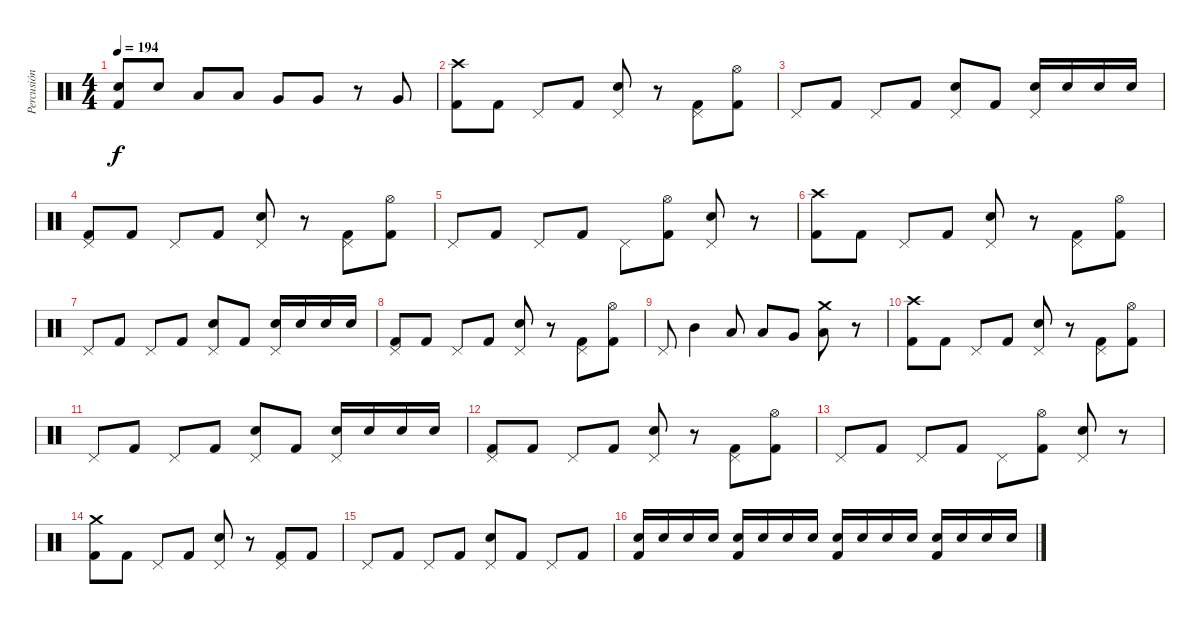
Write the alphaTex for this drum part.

\track ("Percusión" "Percusión") {instrument percussion}
\staff {score}
\articulation defaults
\ts (4 4)
\tempo 194
\clef neutral
\ks c
("Kick (hit) 2" "Snare (hit) 2").8{dy f} "Snare (hit) 2".8 "Low Tom (hit)".8 "Low Tom (hit)".8 "Very Low Tom (hit)".8 "Very Low Tom (hit)".8 r.8 "Very Low Tom (hit)".8 |
("Kick (hit) 2" "Crash high (hit)").8 "Kick (hit) 2".8 "Pedal Hi-Hat (hit)".8 "Kick (hit) 2".8 ("Snare (hit) 2" "Pedal Hi-Hat (hit)").8 r.8 ("Kick (hit) 2" "Pedal Hi-Hat (hit)").8 ("Kick (hit) 2" "Hi-Hat (open)").8 |
"Pedal Hi-Hat (hit)".8 "Kick (hit) 2".8 "Pedal Hi-Hat (hit)".8 "Kick (hit) 2".8 ("Snare (hit) 2" "Pedal Hi-Hat (hit)").8 "Kick (hit) 2".8 ("Snare (hit) 2" "Pedal Hi-Hat (hit)").16 "Snare (hit) 2".16 "Snare (hit) 2".16 "Snare (hit) 2".16 |
("Kick (hit) 2" "Pedal Hi-Hat (hit)").8 "Kick (hit) 2".8 "Pedal Hi-Hat (hit)".8 "Kick (hit) 2".8 ("Snare (hit) 2" "Pedal Hi-Hat (hit)").8 r.8 ("Kick (hit) 2" "Pedal Hi-Hat (hit)").8 ("Kick (hit) 2" "Hi-Hat (open)").8 |
"Pedal Hi-Hat (hit)".8 "Kick (hit) 2".8 "Pedal Hi-Hat (hit)".8 "Kick (hit) 2".8 "Pedal Hi-Hat (hit)".8 ("Kick (hit) 2" "Hi-Hat (open)").8 ("Snare (hit) 2" "Pedal Hi-Hat (hit)").8 r.8 |
("Kick (hit) 2" "Crash high (hit)").8 "Kick (hit) 2".8 "Pedal Hi-Hat (hit)".8 "Kick (hit) 2".8 ("Snare (hit) 2" "Pedal Hi-Hat (hit)").8 r.8 ("Kick (hit) 2" "Pedal Hi-Hat (hit)").8 ("Kick (hit) 2" "Hi-Hat (open)").8 |
"Pedal Hi-Hat (hit)".8 "Kick (hit) 2".8 "Pedal Hi-Hat (hit)".8 "Kick (hit) 2".8 ("Snare (hit) 2" "Pedal Hi-Hat (hit)").8 "Kick (hit) 2".8 ("Snare (hit) 2" "Pedal Hi-Hat (hit)").16 "Snare (hit) 2".16 "Snare (hit) 2".16 "Snare (hit) 2".16 |
("Kick (hit) 2" "Pedal Hi-Hat (hit)").8 "Kick (hit) 2".8 "Pedal Hi-Hat (hit)".8 "Kick (hit) 2".8 ("Snare (hit) 2" "Pedal Hi-Hat (hit)").8 r.8 ("Kick (hit) 2" "Pedal Hi-Hat (hit)").8 ("Kick (hit) 2" "Hi-Hat (open)").8 |
"Pedal Hi-Hat (hit)".8 "Mid Tom (hit)".4 "Low Tom (hit)".8 "Low Tom (hit)".8 "Very Low Tom (hit)".8 ("Low Floor Tom (hit)" "Crash medium (hit)").8 r.8 |
("Kick (hit) 2" "Crash high (hit)").8 "Kick (hit) 2".8 "Pedal Hi-Hat (hit)".8 "Kick (hit) 2".8 ("Snare (hit) 2" "Pedal Hi-Hat (hit)").8 r.8 ("Kick (hit) 2" "Pedal Hi-Hat (hit)").8 ("Kick (hit) 2" "Hi-Hat (open)").8 |
"Pedal Hi-Hat (hit)".8 "Kick (hit) 2".8 "Pedal Hi-Hat (hit)".8 "Kick (hit) 2".8 ("Snare (hit) 2" "Pedal Hi-Hat (hit)").8 "Kick (hit) 2".8 ("Snare (hit) 2" "Pedal Hi-Hat (hit)").16 "Snare (hit) 2".16 "Snare (hit) 2".16 "Snare (hit) 2".16 |
("Kick (hit) 2" "Pedal Hi-Hat (hit)").8 "Kick (hit) 2".8 "Pedal Hi-Hat (hit)".8 "Kick (hit) 2".8 ("Snare (hit) 2" "Pedal Hi-Hat (hit)").8 r.8 ("Kick (hit) 2" "Pedal Hi-Hat (hit)").8 ("Kick (hit) 2" "Hi-Hat (open)").8 |
"Pedal Hi-Hat (hit)".8 "Kick (hit) 2".8 "Pedal Hi-Hat (hit)".8 "Kick (hit) 2".8 "Pedal Hi-Hat (hit)".8 ("Kick (hit) 2" "Hi-Hat (open)").8 ("Snare (hit) 2" "Pedal Hi-Hat (hit)").8 r.8 |
("Kick (hit) 2" "Crash medium (hit)").8 "Kick (hit) 2".8 "Pedal Hi-Hat (hit)".8 "Kick (hit) 2".8 ("Snare (hit) 2" "Pedal Hi-Hat (hit)").8 r.8 ("Kick (hit) 2" "Pedal Hi-Hat (hit)").8 "Kick (hit) 2".8 |
"Pedal Hi-Hat (hit)".8 "Kick (hit) 2".8 "Pedal Hi-Hat (hit)".8 "Kick (hit) 2".8 ("Snare (hit) 2" "Pedal Hi-Hat (hit)").8 "Kick (hit) 2".8 "Pedal Hi-Hat (hit)".8 "Kick (hit) 2".8 |
("Kick (hit) 2" "Snare (hit) 2").16 "Snare (hit) 2".16 "Snare (hit) 2".16 "Snare (hit) 2".16 ("Kick (hit) 2" "Snare (hit) 2").16 "Snare (hit) 2".16 "Snare (hit) 2".16 "Snare (hit) 2".16 ("Kick (hit) 2" "Snare (hit) 2").16 "Snare (hit) 2".16 "Snare (hit) 2".16 "Snare (hit) 2".16 ("Kick (hit) 2" "Snare (hit) 2").16 "Snare (hit) 2".16 "Snare (hit) 2".16 "Snare (hit) 2".16
